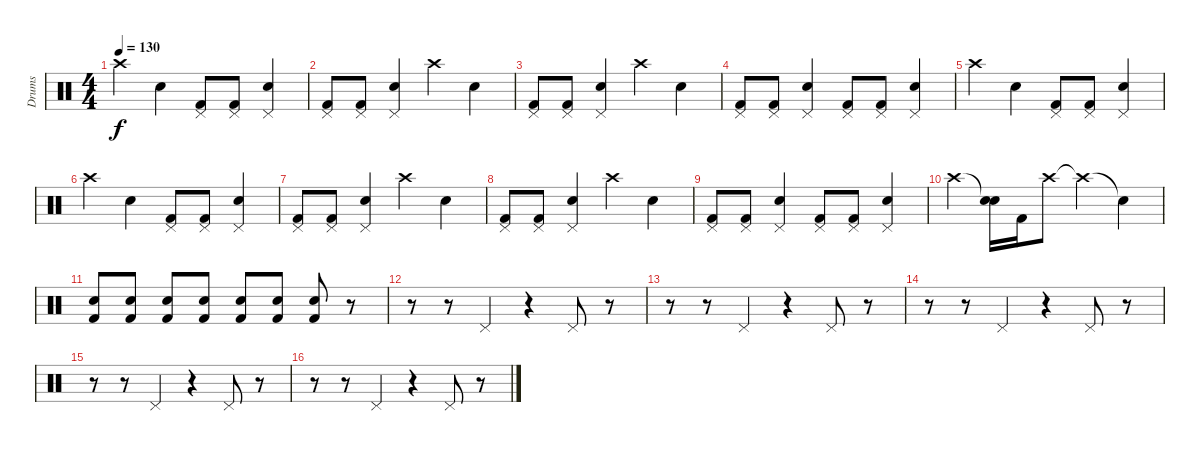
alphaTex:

\track ("Drums" "Drums") {instrument percussion}
\staff {score}
\articulation defaults
\ts (4 4)
\tempo 130
\clef neutral
\ks c "Crash high (hit)".4{dy f} "Snare (hit) 2".4
("Pedal Hi-Hat (hit)" "Kick (hit) 2").8 ("Pedal Hi-Hat (hit)" "Kick (hit) 2").8 ("Pedal Hi-Hat (hit)" "Snare (hit) 2").4 |
("Pedal Hi-Hat (hit)" "Kick (hit) 2").8 ("Pedal Hi-Hat (hit)" "Kick (hit) 2").8 ("Pedal Hi-Hat (hit)" "Snare (hit) 2").4 "Crash high (hit)".4 "Snare (hit) 2".4 |
("Pedal Hi-Hat (hit)" "Kick (hit) 2").8 ("Pedal Hi-Hat (hit)" "Kick (hit) 2").8 ("Pedal Hi-Hat (hit)" "Snare (hit) 2").4 "Crash high (hit)".4 "Snare (hit) 2".4 |
("Pedal Hi-Hat (hit)" "Kick (hit) 2").8 ("Pedal Hi-Hat (hit)" "Kick (hit) 2").8 ("Pedal Hi-Hat (hit)" "Snare (hit) 2").4 ("Pedal Hi-Hat (hit)" "Kick (hit) 2").8 ("Pedal Hi-Hat (hit)" "Kick (hit) 2").8 ("Pedal Hi-Hat (hit)" "Snare (hit) 2").4 |
"Crash high (hit)".4 "Snare (hit) 2".4 ("Pedal Hi-Hat (hit)" "Kick (hit) 2").8 ("Pedal Hi-Hat (hit)" "Kick (hit) 2").8 ("Pedal Hi-Hat (hit)" "Snare (hit) 2").4 |
"Crash high (hit)".4 "Snare (hit) 2".4 ("Pedal Hi-Hat (hit)" "Kick (hit) 2").8 ("Pedal Hi-Hat (hit)" "Kick (hit) 2").8 ("Pedal Hi-Hat (hit)" "Snare (hit) 2").4 |
("Pedal Hi-Hat (hit)" "Kick (hit) 2").8 ("Pedal Hi-Hat (hit)" "Kick (hit) 2").8 ("Pedal Hi-Hat (hit)" "Snare (hit) 2").4 "Crash high (hit)".4 "Snare (hit) 2".4 |
("Pedal Hi-Hat (hit)" "Kick (hit) 2").8 ("Pedal Hi-Hat (hit)" "Kick (hit) 2").8 ("Pedal Hi-Hat (hit)" "Snare (hit) 2").4 "Crash high (hit)".4 "Snare (hit) 2".4 |
("Pedal Hi-Hat (hit)" "Kick (hit) 2").8 ("Pedal Hi-Hat (hit)" "Kick (hit) 2").8 ("Pedal Hi-Hat (hit)" "Snare (hit) 2").4 ("Pedal Hi-Hat (hit)" "Kick (hit) 2").8 ("Pedal Hi-Hat (hit)" "Kick (hit) 2").8 ("Pedal Hi-Hat (hit)" "Snare (hit) 2").4 |
"Crash high (hit)".4 ("Snare (hit)"{t} "Snare (hit) 2").16 "Kick (hit) 2".16 "Crash high (hit)".8 "Crash high (hit)"{t}.4 "Snare (hit)"{t}.4 |
("Snare (hit) 2" "Kick (hit) 2").8 ("Snare (hit) 2" "Kick (hit) 2").8 ("Snare (hit) 2" "Kick (hit) 2").8 ("Snare (hit) 2" "Kick (hit) 2").8 ("Snare (hit) 2" "Kick (hit) 2").8 ("Snare (hit) 2" "Kick (hit) 2").8 ("Snare (hit) 2" "Kick (hit) 2").8 r.8 |
r.8 r.8 "Pedal Hi-Hat (hit)".4 r.4 "Pedal Hi-Hat (hit)".8 r.8 |
r.8 r.8 "Pedal Hi-Hat (hit)".4 r.4 "Pedal Hi-Hat (hit)".8 r.8 |
r.8 r.8 "Pedal Hi-Hat (hit)".4 r.4 "Pedal Hi-Hat (hit)".8 r.8 |
r.8 r.8 "Pedal Hi-Hat (hit)".4 r.4 "Pedal Hi-Hat (hit)".8 r.8 |
r.8 r.8 "Pedal Hi-Hat (hit)".4 r.4 "Pedal Hi-Hat (hit)".8 r.8
